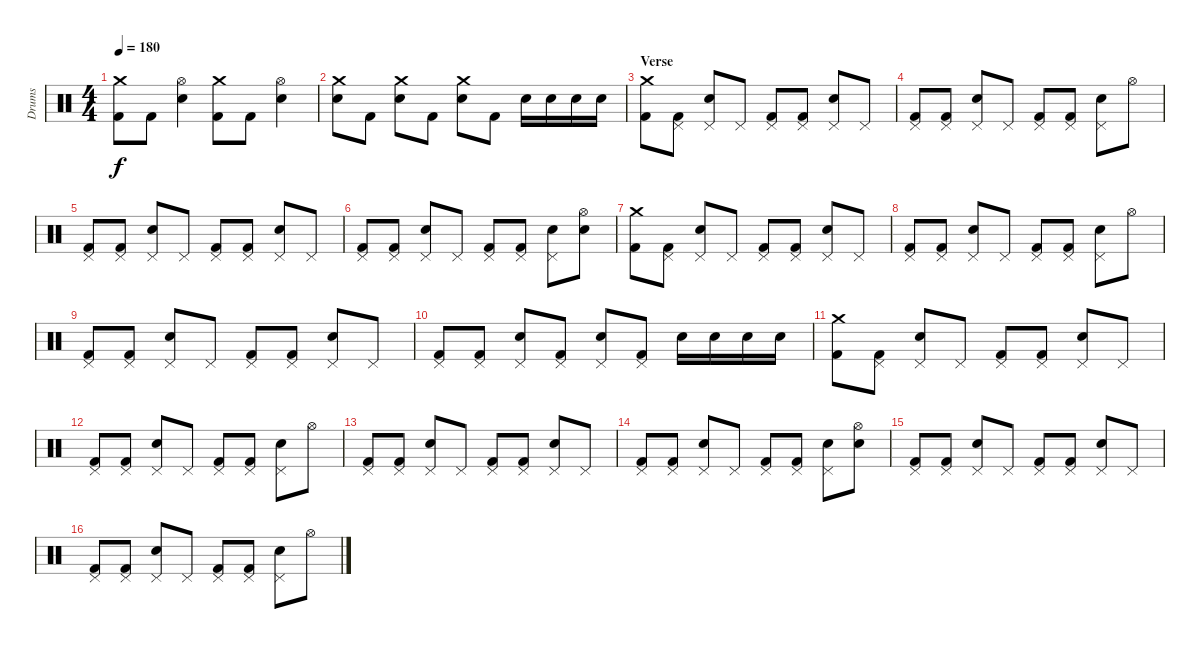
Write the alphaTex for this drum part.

\track ("Drums" "Drums") {instrument percussion}
\staff {score}
\articulation defaults
\ts (4 4)
\tempo 180
\clef neutral
\ks c
("Kick (hit) 2" "Crash medium (hit)").8{dy f} "Kick (hit) 2".8 ("Electric Snare (hit)" "Hi-Hat (open)").4 ("Kick (hit) 2" "Crash medium (hit)").8 "Kick (hit) 2".8 ("Electric Snare (hit)" "Hi-Hat (open)").4 |
("Electric Snare (hit)" "Crash medium (hit)").8 "Kick (hit) 2".8 ("Electric Snare (hit)" "Crash medium (hit)").8 "Kick (hit) 2".8 ("Electric Snare (hit)" "Crash medium (hit)").8 "Kick (hit) 2".8 "Electric Snare (hit)".16 "Electric Snare (hit)".16 "Electric Snare (hit)".16 "Electric Snare (hit)".16 |
\section ("" "Verse")
("Crash medium (hit)" "Kick (hit) 2").8 ("Pedal Hi-Hat (hit)" "Kick (hit) 2").8 ("Pedal Hi-Hat (hit)" "Electric Snare (hit)").8 "Pedal Hi-Hat (hit)".8 ("Pedal Hi-Hat (hit)" "Kick (hit) 2").8 ("Pedal Hi-Hat (hit)" "Kick (hit) 2").8 ("Pedal Hi-Hat (hit)" "Electric Snare (hit)").8 "Pedal Hi-Hat (hit)".8 |
("Pedal Hi-Hat (hit)" "Kick (hit) 2").8 ("Pedal Hi-Hat (hit)" "Kick (hit) 2").8 ("Pedal Hi-Hat (hit)" "Electric Snare (hit)").8 "Pedal Hi-Hat (hit)".8 ("Pedal Hi-Hat (hit)" "Kick (hit) 2").8 ("Pedal Hi-Hat (hit)" "Kick (hit) 2").8 ("Pedal Hi-Hat (hit)" "Electric Snare (hit)").8 "Hi-Hat (open)".8 |
("Pedal Hi-Hat (hit)" "Kick (hit) 2").8 ("Pedal Hi-Hat (hit)" "Kick (hit) 2").8 ("Pedal Hi-Hat (hit)" "Electric Snare (hit)").8 "Pedal Hi-Hat (hit)".8 ("Pedal Hi-Hat (hit)" "Kick (hit) 2").8 ("Pedal Hi-Hat (hit)" "Kick (hit) 2").8 ("Pedal Hi-Hat (hit)" "Electric Snare (hit)").8 "Pedal Hi-Hat (hit)".8 |
("Pedal Hi-Hat (hit)" "Kick (hit) 2").8 ("Pedal Hi-Hat (hit)" "Kick (hit) 2").8 ("Pedal Hi-Hat (hit)" "Electric Snare (hit)").8 "Pedal Hi-Hat (hit)".8 ("Pedal Hi-Hat (hit)" "Kick (hit) 2").8 ("Pedal Hi-Hat (hit)" "Kick (hit) 2").8 ("Pedal Hi-Hat (hit)" "Electric Snare (hit)").8 ("Hi-Hat (open)" "Electric Snare (hit)").8 |
("Crash medium (hit)" "Kick (hit) 2").8 ("Pedal Hi-Hat (hit)" "Kick (hit) 2").8 ("Pedal Hi-Hat (hit)" "Electric Snare (hit)").8 "Pedal Hi-Hat (hit)".8 ("Pedal Hi-Hat (hit)" "Kick (hit) 2").8 ("Pedal Hi-Hat (hit)" "Kick (hit) 2").8 ("Pedal Hi-Hat (hit)" "Electric Snare (hit)").8 "Pedal Hi-Hat (hit)".8 |
("Pedal Hi-Hat (hit)" "Kick (hit) 2").8 ("Pedal Hi-Hat (hit)" "Kick (hit) 2").8 ("Pedal Hi-Hat (hit)" "Electric Snare (hit)").8 "Pedal Hi-Hat (hit)".8 ("Pedal Hi-Hat (hit)" "Kick (hit) 2").8 ("Pedal Hi-Hat (hit)" "Kick (hit) 2").8 ("Pedal Hi-Hat (hit)" "Electric Snare (hit)").8 "Hi-Hat (open)".8 |
("Pedal Hi-Hat (hit)" "Kick (hit) 2").8 ("Pedal Hi-Hat (hit)" "Kick (hit) 2").8 ("Pedal Hi-Hat (hit)" "Electric Snare (hit)").8 "Pedal Hi-Hat (hit)".8 ("Pedal Hi-Hat (hit)" "Kick (hit) 2").8 ("Pedal Hi-Hat (hit)" "Kick (hit) 2").8 ("Pedal Hi-Hat (hit)" "Electric Snare (hit)").8 "Pedal Hi-Hat (hit)".8 |
("Pedal Hi-Hat (hit)" "Kick (hit) 2").8 ("Pedal Hi-Hat (hit)" "Kick (hit) 2").8 ("Pedal Hi-Hat (hit)" "Electric Snare (hit)").8 ("Pedal Hi-Hat (hit)" "Kick (hit) 2").8 ("Pedal Hi-Hat (hit)" "Electric Snare (hit)").8 ("Pedal Hi-Hat (hit)" "Kick (hit) 2").8 "Electric Snare (hit)".16 "Electric Snare (hit)".16 "Electric Snare (hit)".16 "Electric Snare (hit)".16 |
("Crash medium (hit)" "Kick (hit) 2").8 ("Pedal Hi-Hat (hit)" "Kick (hit) 2").8 ("Pedal Hi-Hat (hit)" "Electric Snare (hit)").8 "Pedal Hi-Hat (hit)".8 ("Pedal Hi-Hat (hit)" "Kick (hit) 2").8 ("Pedal Hi-Hat (hit)" "Kick (hit) 2").8 ("Pedal Hi-Hat (hit)" "Electric Snare (hit)").8 "Pedal Hi-Hat (hit)".8 |
("Pedal Hi-Hat (hit)" "Kick (hit) 2").8 ("Pedal Hi-Hat (hit)" "Kick (hit) 2").8 ("Pedal Hi-Hat (hit)" "Electric Snare (hit)").8 "Pedal Hi-Hat (hit)".8 ("Pedal Hi-Hat (hit)" "Kick (hit) 2").8 ("Pedal Hi-Hat (hit)" "Kick (hit) 2").8 ("Pedal Hi-Hat (hit)" "Electric Snare (hit)").8 "Hi-Hat (open)".8 |
("Pedal Hi-Hat (hit)" "Kick (hit) 2").8 ("Pedal Hi-Hat (hit)" "Kick (hit) 2").8 ("Pedal Hi-Hat (hit)" "Electric Snare (hit)").8 "Pedal Hi-Hat (hit)".8 ("Pedal Hi-Hat (hit)" "Kick (hit) 2").8 ("Pedal Hi-Hat (hit)" "Kick (hit) 2").8 ("Pedal Hi-Hat (hit)" "Electric Snare (hit)").8 "Pedal Hi-Hat (hit)".8 |
("Pedal Hi-Hat (hit)" "Kick (hit) 2").8 ("Pedal Hi-Hat (hit)" "Kick (hit) 2").8 ("Pedal Hi-Hat (hit)" "Electric Snare (hit)").8 "Pedal Hi-Hat (hit)".8 ("Pedal Hi-Hat (hit)" "Kick (hit) 2").8 ("Pedal Hi-Hat (hit)" "Kick (hit) 2").8 ("Pedal Hi-Hat (hit)" "Electric Snare (hit)").8 ("Hi-Hat (open)" "Electric Snare (hit)").8 |
("Pedal Hi-Hat (hit)" "Kick (hit) 2").8 ("Pedal Hi-Hat (hit)" "Kick (hit) 2").8 ("Pedal Hi-Hat (hit)" "Electric Snare (hit)").8 "Pedal Hi-Hat (hit)".8 ("Pedal Hi-Hat (hit)" "Kick (hit) 2").8 ("Pedal Hi-Hat (hit)" "Kick (hit) 2").8 ("Pedal Hi-Hat (hit)" "Electric Snare (hit)").8 "Pedal Hi-Hat (hit)".8 |
("Pedal Hi-Hat (hit)" "Kick (hit) 2").8 ("Pedal Hi-Hat (hit)" "Kick (hit) 2").8 ("Pedal Hi-Hat (hit)" "Electric Snare (hit)").8 "Pedal Hi-Hat (hit)".8 ("Pedal Hi-Hat (hit)" "Kick (hit) 2").8 ("Pedal Hi-Hat (hit)" "Kick (hit) 2").8 ("Pedal Hi-Hat (hit)" "Electric Snare (hit)").8 "Hi-Hat (open)".8
